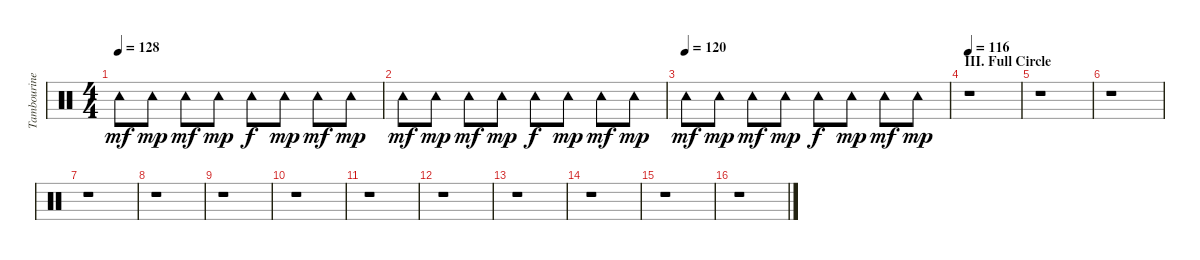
\track ("Tambourine" "Tambourine") {instrument percussion}
\staff {score}
\articulation defaults
\ts (4 4)
\tempo 128
\clef neutral
\ks c "Tambourine (hit)".8{dy mf} "Tambourine (hit)".8{dy mp} "Tambourine (hit)".8{dy mf} "Tambourine (hit)".8{dy mp} "Tambourine (hit)".8{dy f} "Tambourine (hit)".8{dy mp} "Tambourine (hit)".8{dy mf} "Tambourine (hit)".8{dy mp}
|
"Tambourine (hit)".8{dy mf} "Tambourine (hit)".8{dy mp} "Tambourine (hit)".8{dy mf} "Tambourine (hit)".8{dy mp} "Tambourine (hit)".8{dy f} "Tambourine (hit)".8{dy mp} "Tambourine (hit)".8{dy mf} "Tambourine (hit)".8{dy mp} |
\tempo (120)
"Tambourine (hit)".8{dy mf} "Tambourine (hit)".8{dy mp} "Tambourine (hit)".8{dy mf} "Tambourine (hit)".8{dy mp} "Tambourine (hit)".8{dy f} "Tambourine (hit)".8{dy mp} "Tambourine (hit)".8{dy mf} "Tambourine (hit)".8{dy mp} |
\section ("" "III. Full Circle")
\tempo 116
r.1 |
r.1 |
r.1 |
r.1 |
r.1 |
r.1 |
r.1 |
r.1 |
r.1 |
r.1 |
r.1 |
r.1 |
r.1
